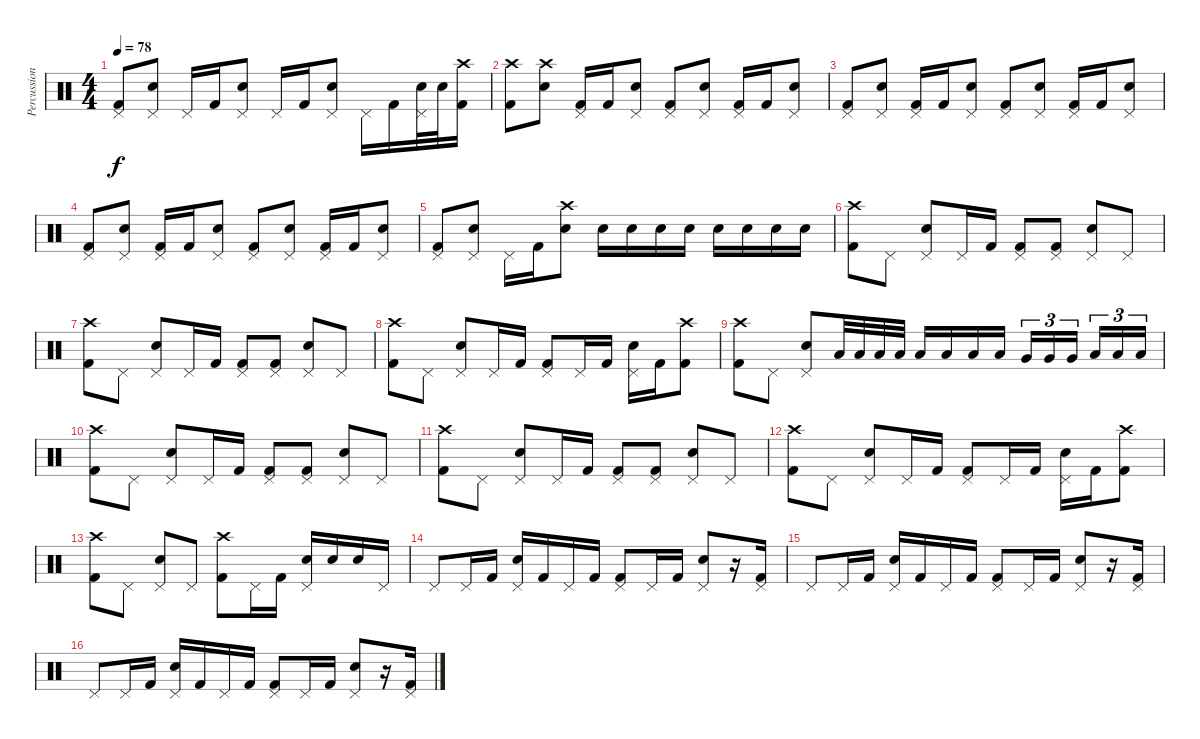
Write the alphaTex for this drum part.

\track ("Percussion" "Percussion") {instrument percussion}
\staff {score}
\articulation defaults
\ts (4 4)
\tempo 78
\clef neutral
\ks c
("Pedal Hi-Hat (hit)" "Kick (hit) 2").8{dy f} ("Pedal Hi-Hat (hit)" "Snare (hit) 2").8 "Pedal Hi-Hat (hit)".16 "Kick (hit) 2".16 ("Pedal Hi-Hat (hit)" "Snare (hit) 2").8 "Pedal Hi-Hat (hit)".16 "Kick (hit) 2".16 ("Pedal Hi-Hat (hit)" "Snare (hit) 2").8 "Pedal Hi-Hat (hit)".16 "Kick (hit) 2".16 ("Pedal Hi-Hat (hit)" "Snare (hit) 2").32 "Snare (hit) 2".32 ("Crash high (hit)" "Kick (hit) 2").16 |
("Crash high (hit)" "Kick (hit) 2").8 ("Crash high (hit)" "Snare (hit) 2").8 ("Pedal Hi-Hat (hit)" "Kick (hit) 2").16 "Kick (hit) 2".16 ("Pedal Hi-Hat (hit)" "Snare (hit) 2").8 ("Pedal Hi-Hat (hit)" "Kick (hit) 2").8 ("Pedal Hi-Hat (hit)" "Snare (hit) 2").8 ("Pedal Hi-Hat (hit)" "Kick (hit) 2").16 "Kick (hit) 2".16 ("Pedal Hi-Hat (hit)" "Snare (hit) 2").8 |
("Pedal Hi-Hat (hit)" "Kick (hit) 2").8 ("Pedal Hi-Hat (hit)" "Snare (hit) 2").8 ("Pedal Hi-Hat (hit)" "Kick (hit) 2").16 "Kick (hit) 2".16 ("Pedal Hi-Hat (hit)" "Snare (hit) 2").8 ("Pedal Hi-Hat (hit)" "Kick (hit) 2").8 ("Pedal Hi-Hat (hit)" "Snare (hit) 2").8 ("Pedal Hi-Hat (hit)" "Kick (hit) 2").16 "Kick (hit) 2".16 ("Pedal Hi-Hat (hit)" "Snare (hit) 2").8 |
("Pedal Hi-Hat (hit)" "Kick (hit) 2").8 ("Pedal Hi-Hat (hit)" "Snare (hit) 2").8 ("Pedal Hi-Hat (hit)" "Kick (hit) 2").16 "Kick (hit) 2".16 ("Pedal Hi-Hat (hit)" "Snare (hit) 2").8 ("Pedal Hi-Hat (hit)" "Kick (hit) 2").8 ("Pedal Hi-Hat (hit)" "Snare (hit) 2").8 ("Pedal Hi-Hat (hit)" "Kick (hit) 2").16 "Kick (hit) 2".16 ("Pedal Hi-Hat (hit)" "Snare (hit) 2").8 |
("Pedal Hi-Hat (hit)" "Kick (hit) 2").8 ("Pedal Hi-Hat (hit)" "Snare (hit) 2").8 "Pedal Hi-Hat (hit)".16 "Kick (hit) 2".16 ("Crash high (hit)" "Snare (hit) 2").8 "Snare (hit) 2".16 "Snare (hit) 2".16 "Snare (hit) 2".16 "Snare (hit) 2".16 "Snare (hit) 2".16 "Snare (hit) 2".16 "Snare (hit) 2".16 "Snare (hit) 2".16 |
("Crash high (hit)" "Kick (hit) 2").8 "Pedal Hi-Hat (hit)".8 ("Pedal Hi-Hat (hit)" "Snare (hit) 2").8 "Pedal Hi-Hat (hit)".16 "Kick (hit) 2".16 ("Pedal Hi-Hat (hit)" "Kick (hit) 2").8 ("Pedal Hi-Hat (hit)" "Kick (hit) 2").8 ("Pedal Hi-Hat (hit)" "Snare (hit) 2").8 "Pedal Hi-Hat (hit)".8 |
("Crash high (hit)" "Kick (hit) 2").8 "Pedal Hi-Hat (hit)".8 ("Pedal Hi-Hat (hit)" "Snare (hit) 2").8 "Pedal Hi-Hat (hit)".16 "Kick (hit) 2".16 ("Pedal Hi-Hat (hit)" "Kick (hit) 2").8 ("Pedal Hi-Hat (hit)" "Kick (hit) 2").8 ("Pedal Hi-Hat (hit)" "Snare (hit) 2").8 "Pedal Hi-Hat (hit)".8 |
("Crash high (hit)" "Kick (hit) 2").8 "Pedal Hi-Hat (hit)".8 ("Pedal Hi-Hat (hit)" "Snare (hit) 2").8 "Pedal Hi-Hat (hit)".16 "Kick (hit) 2".16 ("Pedal Hi-Hat (hit)" "Kick (hit) 2").8 "Pedal Hi-Hat (hit)".16 "Kick (hit) 2".16 ("Pedal Hi-Hat (hit)" "Snare (hit) 2").16 "Kick (hit) 2".16 ("Crash high (hit)" "Kick (hit) 2").8 |
("Crash high (hit)" "Kick (hit) 2").8 "Pedal Hi-Hat (hit)".8 ("Pedal Hi-Hat (hit)" "Snare (hit) 2").8 "Low Tom (hit)".32 "Low Tom (hit)".32 "Low Tom (hit)".32 "Low Tom (hit)".32 "Low Tom (hit)".16 "Low Tom (hit)".16 "Low Tom (hit)".16 "Low Tom (hit)".16 "Very Low Tom (hit)".16{tu (3 2)} "Very Low Tom (hit)".16{tu (3 2)} "Very Low Tom (hit)".16{tu (3 2)} "Low Floor Tom (hit)".16{tu (3 2)} "Low Floor Tom (hit)".16{tu (3 2)} "Low Floor Tom (hit)".16{tu (3 2)} |
("Crash high (hit)" "Kick (hit) 2").8 "Pedal Hi-Hat (hit)".8 ("Pedal Hi-Hat (hit)" "Snare (hit) 2").8 "Pedal Hi-Hat (hit)".16 "Kick (hit) 2".16 ("Pedal Hi-Hat (hit)" "Kick (hit) 2").8 ("Pedal Hi-Hat (hit)" "Kick (hit) 2").8 ("Pedal Hi-Hat (hit)" "Snare (hit) 2").8 "Pedal Hi-Hat (hit)".8 |
("Crash high (hit)" "Kick (hit) 2").8 "Pedal Hi-Hat (hit)".8 ("Pedal Hi-Hat (hit)" "Snare (hit) 2").8 "Pedal Hi-Hat (hit)".16 "Kick (hit) 2".16 ("Pedal Hi-Hat (hit)" "Kick (hit) 2").8 ("Pedal Hi-Hat (hit)" "Kick (hit) 2").8 ("Pedal Hi-Hat (hit)" "Snare (hit) 2").8 "Pedal Hi-Hat (hit)".8 |
("Crash high (hit)" "Kick (hit) 2").8 "Pedal Hi-Hat (hit)".8 ("Pedal Hi-Hat (hit)" "Snare (hit) 2").8 "Pedal Hi-Hat (hit)".16 "Kick (hit) 2".16 ("Pedal Hi-Hat (hit)" "Kick (hit) 2").8 "Pedal Hi-Hat (hit)".16 "Kick (hit) 2".16 ("Pedal Hi-Hat (hit)" "Snare (hit) 2").16 "Kick (hit) 2".16 ("Crash high (hit)" "Kick (hit) 2").8 |
("Crash high (hit)" "Kick (hit) 2").8 "Pedal Hi-Hat (hit)".8 ("Pedal Hi-Hat (hit)" "Snare (hit) 2").8 "Pedal Hi-Hat (hit)".8 ("Crash high (hit)" "Kick (hit) 2").8 "Pedal Hi-Hat (hit)".16 "Kick (hit) 2".16 ("Pedal Hi-Hat (hit)" "Snare (hit) 2").16 "Snare (hit) 2".16 "Snare (hit) 2".16 "Pedal Hi-Hat (hit)".16 |
"Pedal Hi-Hat (hit)".8 "Pedal Hi-Hat (hit)".16 "Kick (hit) 2".16 ("Pedal Hi-Hat (hit)" "Snare (hit) 2").16 "Kick (hit) 2".16 "Pedal Hi-Hat (hit)".16 "Kick (hit) 2".16 ("Pedal Hi-Hat (hit)" "Kick (hit) 2").8 "Pedal Hi-Hat (hit)".16 "Kick (hit) 2".16 ("Pedal Hi-Hat (hit)" "Snare (hit) 2").8 r.16 ("Pedal Hi-Hat (hit)" "Kick (hit) 2").16 |
"Pedal Hi-Hat (hit)".8 "Pedal Hi-Hat (hit)".16 "Kick (hit) 2".16 ("Pedal Hi-Hat (hit)" "Snare (hit) 2").16 "Kick (hit) 2".16 "Pedal Hi-Hat (hit)".16 "Kick (hit) 2".16 ("Pedal Hi-Hat (hit)" "Kick (hit) 2").8 "Pedal Hi-Hat (hit)".16 "Kick (hit) 2".16 ("Pedal Hi-Hat (hit)" "Snare (hit) 2").8 r.16 ("Pedal Hi-Hat (hit)" "Kick (hit) 2").16 |
"Pedal Hi-Hat (hit)".8 "Pedal Hi-Hat (hit)".16 "Kick (hit) 2".16 ("Pedal Hi-Hat (hit)" "Snare (hit) 2").16 "Kick (hit) 2".16 "Pedal Hi-Hat (hit)".16 "Kick (hit) 2".16 ("Pedal Hi-Hat (hit)" "Kick (hit) 2").8 "Pedal Hi-Hat (hit)".16 "Kick (hit) 2".16 ("Pedal Hi-Hat (hit)" "Snare (hit) 2").8 r.16 ("Pedal Hi-Hat (hit)" "Kick (hit) 2").16
